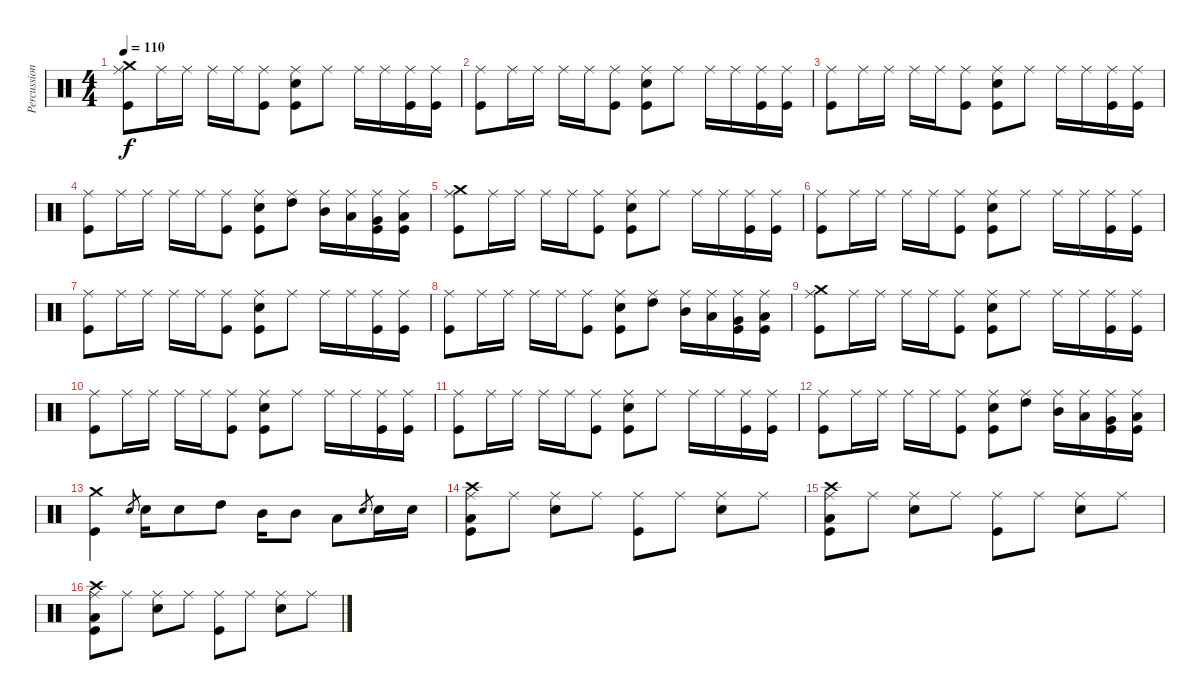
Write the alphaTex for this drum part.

\track ("Percussion" "Percussion") {instrument percussion}
\staff {score}
\articulation defaults
\ts (4 4)
\tempo 110
\clef neutral
\ks c
("Crash medium (hit)" "Ride (middle)" "Kick (hit)").8{dy f} "Ride (middle)".16 "Ride (middle)".16 "Ride (middle)".16 "Ride (middle)".16 ("Ride (middle)" "Kick (hit)").8 ("Electric Snare (hit)" "Ride (middle)" "Kick (hit)").8 "Ride (middle)".8 "Ride (middle)".16 "Ride (middle)".16 ("Ride (middle)" "Kick (hit)").16 ("Ride (middle)" "Kick (hit)").16 |
("Ride (middle)" "Kick (hit)").8 "Ride (middle)".16 "Ride (middle)".16 "Ride (middle)".16 "Ride (middle)".16 ("Ride (middle)" "Kick (hit)").8 ("Electric Snare (hit)" "Ride (middle)" "Kick (hit)").8 "Ride (middle)".8 "Ride (middle)".16 "Ride (middle)".16 ("Ride (middle)" "Kick (hit)").16 ("Ride (middle)" "Kick (hit)").16 |
("Ride (middle)" "Kick (hit)").8 "Ride (middle)".16 "Ride (middle)".16 "Ride (middle)".16 "Ride (middle)".16 ("Ride (middle)" "Kick (hit)").8 ("Electric Snare (hit)" "Ride (middle)" "Kick (hit)").8 "Ride (middle)".8 "Ride (middle)".16 "Ride (middle)".16 ("Ride (middle)" "Kick (hit)").16 ("Ride (middle)" "Kick (hit)").16 |
("Ride (middle)" "Kick (hit)").8 "Ride (middle)".16 "Ride (middle)".16 "Ride (middle)".16 "Ride (middle)".16 ("Ride (middle)" "Kick (hit)").8 ("Electric Snare (hit)" "Ride (middle)" "Kick (hit)").8 ("High Tom (hit)" "Ride (middle)").8 ("Mid Tom (hit)" "Ride (middle)").16 ("Low Tom (hit)" "Ride (middle)").16 ("Very Low Tom (hit)" "Ride (middle)" "Kick (hit)").16 ("Low Floor Tom (hit)" "Ride (middle)" "Kick (hit)").16 |
("Crash medium (hit)" "Ride (middle)" "Kick (hit)").8 "Ride (middle)".16 "Ride (middle)".16 "Ride (middle)".16 "Ride (middle)".16 ("Ride (middle)" "Kick (hit)").8 ("Electric Snare (hit)" "Ride (middle)" "Kick (hit)").8 "Ride (middle)".8 "Ride (middle)".16 "Ride (middle)".16 ("Ride (middle)" "Kick (hit)").16 ("Ride (middle)" "Kick (hit)").16 |
("Ride (middle)" "Kick (hit)").8 "Ride (middle)".16 "Ride (middle)".16 "Ride (middle)".16 "Ride (middle)".16 ("Ride (middle)" "Kick (hit)").8 ("Electric Snare (hit)" "Ride (middle)" "Kick (hit)").8 "Ride (middle)".8 "Ride (middle)".16 "Ride (middle)".16 ("Ride (middle)" "Kick (hit)").16 ("Ride (middle)" "Kick (hit)").16 |
("Ride (middle)" "Kick (hit)").8 "Ride (middle)".16 "Ride (middle)".16 "Ride (middle)".16 "Ride (middle)".16 ("Ride (middle)" "Kick (hit)").8 ("Electric Snare (hit)" "Ride (middle)" "Kick (hit)").8 "Ride (middle)".8 "Ride (middle)".16 "Ride (middle)".16 ("Ride (middle)" "Kick (hit)").16 ("Ride (middle)" "Kick (hit)").16 |
("Ride (middle)" "Kick (hit)").8 "Ride (middle)".16 "Ride (middle)".16 "Ride (middle)".16 "Ride (middle)".16 ("Ride (middle)" "Kick (hit)").8 ("Electric Snare (hit)" "Ride (middle)" "Kick (hit)").8 ("High Tom (hit)" "Ride (middle)").8 ("Mid Tom (hit)" "Ride (middle)").16 ("Low Tom (hit)" "Ride (middle)").16 ("Very Low Tom (hit)" "Ride (middle)" "Kick (hit)").16 ("Low Floor Tom (hit)" "Ride (middle)" "Kick (hit)").16 |
("Crash medium (hit)" "Ride (middle)" "Kick (hit)").8 "Ride (middle)".16 "Ride (middle)".16 "Ride (middle)".16 "Ride (middle)".16 ("Ride (middle)" "Kick (hit)").8 ("Electric Snare (hit)" "Ride (middle)" "Kick (hit)").8 "Ride (middle)".8 "Ride (middle)".16 "Ride (middle)".16 ("Ride (middle)" "Kick (hit)").16 ("Ride (middle)" "Kick (hit)").16 |
("Ride (middle)" "Kick (hit)").8 "Ride (middle)".16 "Ride (middle)".16 "Ride (middle)".16 "Ride (middle)".16 ("Ride (middle)" "Kick (hit)").8 ("Electric Snare (hit)" "Ride (middle)" "Kick (hit)").8 "Ride (middle)".8 "Ride (middle)".16 "Ride (middle)".16 ("Ride (middle)" "Kick (hit)").16 ("Ride (middle)" "Kick (hit)").16 |
("Ride (middle)" "Kick (hit)").8 "Ride (middle)".16 "Ride (middle)".16 "Ride (middle)".16 "Ride (middle)".16 ("Ride (middle)" "Kick (hit)").8 ("Electric Snare (hit)" "Ride (middle)" "Kick (hit)").8 "Ride (middle)".8 "Ride (middle)".16 "Ride (middle)".16 ("Ride (middle)" "Kick (hit)").16 ("Ride (middle)" "Kick (hit)").16 |
("Ride (middle)" "Kick (hit)").8 "Ride (middle)".16 "Ride (middle)".16 "Ride (middle)".16 "Ride (middle)".16 ("Ride (middle)" "Kick (hit)").8 ("Electric Snare (hit)" "Ride (middle)" "Kick (hit)").8 ("High Tom (hit)" "Ride (middle)").8 ("Mid Tom (hit)" "Ride (middle)").16 ("Low Tom (hit)" "Ride (middle)").16 ("Very Low Tom (hit)" "Ride (middle)" "Kick (hit)").16 ("Low Floor Tom (hit)" "Ride (middle)" "Kick (hit)").16 |
("Crash medium (hit)" "Kick (hit)").4 "Electric Snare (hit)".8{gr} "Electric Snare (hit)".16 "Electric Snare (hit)".8 "High Tom (hit)".8 "Mid Tom (hit)".16 "Mid Tom (hit)".8 "Low Tom (hit)".8 "Electric Snare (hit)".8{gr} "Electric Snare (hit)".16 "Electric Snare (hit)".16 |
("Crash high (hit)" "Ride (middle)" "Low Floor Tom (hit)" "Kick (hit)").8 "Ride (middle)".8 ("Ride (middle)" "Electric Snare (hit)").8 "Ride (middle)".8 ("Ride (middle)" "Kick (hit)").8 "Ride (middle)".8 ("Ride (middle)" "Electric Snare (hit)").8 "Ride (middle)".8 |
("Crash high (hit)" "Ride (middle)" "Low Floor Tom (hit)" "Kick (hit)").8 "Ride (middle)".8 ("Ride (middle)" "Electric Snare (hit)").8 "Ride (middle)".8 ("Ride (middle)" "Kick (hit)").8 "Ride (middle)".8 ("Ride (middle)" "Electric Snare (hit)").8 "Ride (middle)".8 |
("Crash high (hit)" "Ride (middle)" "Low Floor Tom (hit)" "Kick (hit)").8 "Ride (middle)".8 ("Ride (middle)" "Electric Snare (hit)").8 "Ride (middle)".8 ("Ride (middle)" "Kick (hit)").8 "Ride (middle)".8 ("Ride (middle)" "Electric Snare (hit)").8 "Ride (middle)".8
